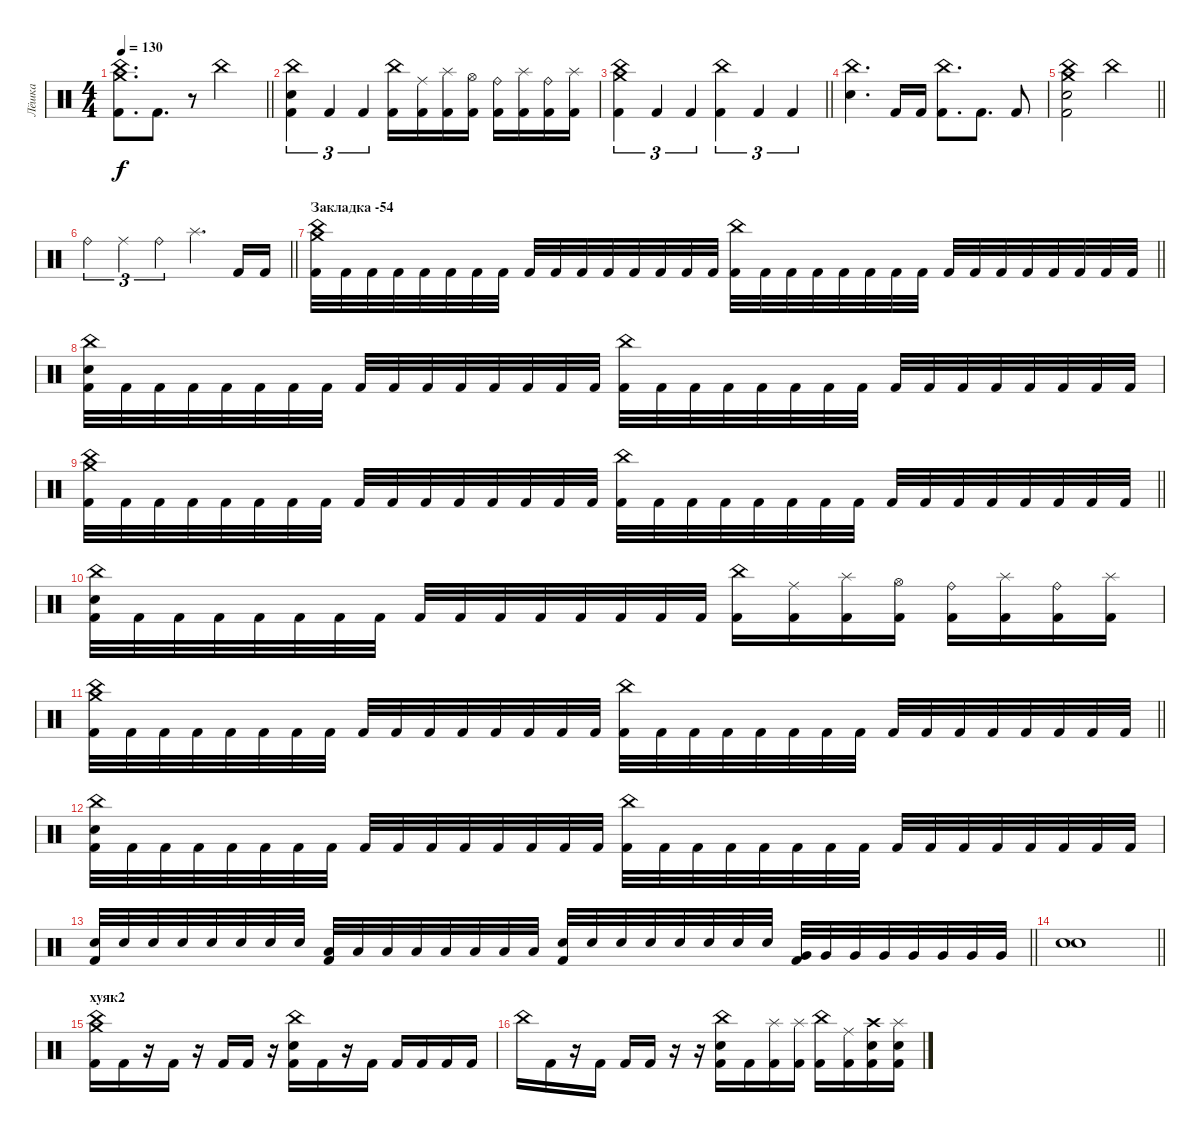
\track ("Лёшка" "Лёшка") {instrument percussion}
\staff {score}
\articulation defaults
\ts (4 4)
\tempo 130
\clef neutral
\barLineRight lightlight
\ks c
("China (hit)" "Crash medium (hit)" "Kick (hit) 2").8{d dy f} "Kick (hit) 2".8{d} r.8 "China (hit)".2 |
("China (hit)" "Electric Snare (hit)" "Kick (hit) 2").4{tu (3 2)} "Kick (hit) 2".4{tu (3 2)} "Kick (hit) 2".4{tu (3 2)} ("China (hit)" "Kick (hit) 2").16 ("Ride (middle)" "Kick (hit) 2").16 ("Splash (hit)" "Kick (hit) 2").16 ("Hi-Hat (open)" "Kick (hit) 2").16 ("Ride (bell)" "Kick (hit) 2").16 ("Splash (hit)" "Kick (hit) 2").16 ("Ride (bell)" "Kick (hit) 2").16 ("Splash (hit)" "Kick (hit) 2").16 |
\barLineRight lightlight
("China (hit)" "Crash medium (hit)" "Kick (hit) 2").4{tu (3 2)} "Kick (hit) 2".4{tu (3 2)} "Kick (hit) 2".4{tu (3 2)} ("China (hit)" "Kick (hit) 2").4{tu (3 2)} "Kick (hit) 2".4{tu (3 2)} "Kick (hit) 2".4{tu (3 2)} |
("China (hit)" "Electric Snare (hit)").4{d} "Kick (hit) 2".16 "Kick (hit) 2".16 ("China (hit)" "Kick (hit) 2").8{d} "Kick (hit) 2".8{d} "Kick (hit) 2".8 |
\barLineRight lightlight
("China (hit)" "Crash medium (hit)" "Electric Snare (hit)" "Kick (hit) 2").2 "China (hit)".2 |
\barLineRight lightlight "Ride (bell)".4{tu (3 2)} "Ride (middle)".4{tu (3 2)} "Ride (bell)".4{tu (3 2)} "Splash (hit)".4{d} "Kick (hit) 2".16 "Kick (hit) 2".16
|
\section ("" "Закладка -54")
\barLineRight lightlight
("China (hit)" "Crash medium (hit)" "Kick (hit) 2").32 "Kick (hit) 2".32 "Kick (hit) 2".32 "Kick (hit) 2".32 "Kick (hit) 2".32 "Kick (hit) 2".32 "Kick (hit) 2".32 "Kick (hit) 2".32 "Kick (hit) 2".32 "Kick (hit) 2".32 "Kick (hit) 2".32 "Kick (hit) 2".32 "Kick (hit) 2".32 "Kick (hit) 2".32 "Kick (hit) 2".32 "Kick (hit) 2".32 ("China (hit)" "Kick (hit) 2").32 "Kick (hit) 2".32 "Kick (hit) 2".32 "Kick (hit) 2".32 "Kick (hit) 2".32 "Kick (hit) 2".32 "Kick (hit) 2".32 "Kick (hit) 2".32 "Kick (hit) 2".32 "Kick (hit) 2".32 "Kick (hit) 2".32 "Kick (hit) 2".32 "Kick (hit) 2".32 "Kick (hit) 2".32 "Kick (hit) 2".32 "Kick (hit) 2".32 |
("China (hit)" "Electric Snare (hit)" "Kick (hit) 2").32 "Kick (hit) 2".32 "Kick (hit) 2".32 "Kick (hit) 2".32 "Kick (hit) 2".32 "Kick (hit) 2".32 "Kick (hit) 2".32 "Kick (hit) 2".32 "Kick (hit) 2".32 "Kick (hit) 2".32 "Kick (hit) 2".32 "Kick (hit) 2".32 "Kick (hit) 2".32 "Kick (hit) 2".32 "Kick (hit) 2".32 "Kick (hit) 2".32 ("China (hit)" "Kick (hit) 2").32 "Kick (hit) 2".32 "Kick (hit) 2".32 "Kick (hit) 2".32 "Kick (hit) 2".32 "Kick (hit) 2".32 "Kick (hit) 2".32 "Kick (hit) 2".32 "Kick (hit) 2".32 "Kick (hit) 2".32 "Kick (hit) 2".32 "Kick (hit) 2".32 "Kick (hit) 2".32 "Kick (hit) 2".32 "Kick (hit) 2".32 "Kick (hit) 2".32 |
\barLineRight lightlight
("China (hit)" "Crash medium (hit)" "Kick (hit) 2").32 "Kick (hit) 2".32 "Kick (hit) 2".32 "Kick (hit) 2".32 "Kick (hit) 2".32 "Kick (hit) 2".32 "Kick (hit) 2".32 "Kick (hit) 2".32 "Kick (hit) 2".32 "Kick (hit) 2".32 "Kick (hit) 2".32 "Kick (hit) 2".32 "Kick (hit) 2".32 "Kick (hit) 2".32 "Kick (hit) 2".32 "Kick (hit) 2".32 ("China (hit)" "Kick (hit) 2").32 "Kick (hit) 2".32 "Kick (hit) 2".32 "Kick (hit) 2".32 "Kick (hit) 2".32 "Kick (hit) 2".32 "Kick (hit) 2".32 "Kick (hit) 2".32 "Kick (hit) 2".32 "Kick (hit) 2".32 "Kick (hit) 2".32 "Kick (hit) 2".32 "Kick (hit) 2".32 "Kick (hit) 2".32 "Kick (hit) 2".32 "Kick (hit) 2".32 |
("China (hit)" "Electric Snare (hit)" "Kick (hit) 2").32 "Kick (hit) 2".32 "Kick (hit) 2".32 "Kick (hit) 2".32 "Kick (hit) 2".32 "Kick (hit) 2".32 "Kick (hit) 2".32 "Kick (hit) 2".32 "Kick (hit) 2".32 "Kick (hit) 2".32 "Kick (hit) 2".32 "Kick (hit) 2".32 "Kick (hit) 2".32 "Kick (hit) 2".32 "Kick (hit) 2".32 "Kick (hit) 2".32 ("China (hit)" "Kick (hit) 2").16 ("Ride (middle)" "Kick (hit) 2").16 ("Splash (hit)" "Kick (hit) 2").16 ("Hi-Hat (open)" "Kick (hit) 2").16 ("Ride (bell)" "Kick (hit) 2").16 ("Splash (hit)" "Kick (hit) 2").16 ("Ride (bell)" "Kick (hit) 2").16 ("Splash (hit)" "Kick (hit) 2").16 |
\barLineRight lightlight
("China (hit)" "Crash medium (hit)" "Kick (hit) 2").32 "Kick (hit) 2".32 "Kick (hit) 2".32 "Kick (hit) 2".32 "Kick (hit) 2".32 "Kick (hit) 2".32 "Kick (hit) 2".32 "Kick (hit) 2".32 "Kick (hit) 2".32 "Kick (hit) 2".32 "Kick (hit) 2".32 "Kick (hit) 2".32 "Kick (hit) 2".32 "Kick (hit) 2".32 "Kick (hit) 2".32 "Kick (hit) 2".32 ("China (hit)" "Kick (hit) 2").32 "Kick (hit) 2".32 "Kick (hit) 2".32 "Kick (hit) 2".32 "Kick (hit) 2".32 "Kick (hit) 2".32 "Kick (hit) 2".32 "Kick (hit) 2".32 "Kick (hit) 2".32 "Kick (hit) 2".32 "Kick (hit) 2".32 "Kick (hit) 2".32 "Kick (hit) 2".32 "Kick (hit) 2".32 "Kick (hit) 2".32 "Kick (hit) 2".32 |
("China (hit)" "Electric Snare (hit)" "Kick (hit) 2").32 "Kick (hit) 2".32 "Kick (hit) 2".32 "Kick (hit) 2".32 "Kick (hit) 2".32 "Kick (hit) 2".32 "Kick (hit) 2".32 "Kick (hit) 2".32 "Kick (hit) 2".32 "Kick (hit) 2".32 "Kick (hit) 2".32 "Kick (hit) 2".32 "Kick (hit) 2".32 "Kick (hit) 2".32 "Kick (hit) 2".32 "Kick (hit) 2".32 ("China (hit)" "Kick (hit) 2").32 "Kick (hit) 2".32 "Kick (hit) 2".32 "Kick (hit) 2".32 "Kick (hit) 2".32 "Kick (hit) 2".32 "Kick (hit) 2".32 "Kick (hit) 2".32 "Kick (hit) 2".32 "Kick (hit) 2".32 "Kick (hit) 2".32 "Kick (hit) 2".32 "Kick (hit) 2".32 "Kick (hit) 2".32 "Kick (hit) 2".32 "Kick (hit) 2".32 |
\barLineRight lightlight
("Electric Snare (hit)" "Kick (hit) 2").32 "Electric Snare (hit)".32 "Electric Snare (hit)".32 "Electric Snare (hit)".32 "Electric Snare (hit)".32 "Electric Snare (hit)".32 "Electric Snare (hit)".32 "Electric Snare (hit)".32 ("Low Tom (hit)" "Kick (hit) 2").32 "Low Tom (hit)".32 "Low Tom (hit)".32 "Low Tom (hit)".32 "Low Tom (hit)".32 "Low Tom (hit)".32 "Low Tom (hit)".32 "Low Tom (hit)".32 ("Electric Snare (hit)" "Kick (hit) 2").32 "Electric Snare (hit)".32 "Electric Snare (hit)".32 "Electric Snare (hit)".32 "Electric Snare (hit)".32 "Electric Snare (hit)".32 "Electric Snare (hit)".32 "Electric Snare (hit)".32 ("Very Low Tom (hit)" "Kick (hit) 2").32 "Very Low Tom (hit)".32 "Very Low Tom (hit)".32 "Very Low Tom (hit)".32 "Very Low Tom (hit)".32 "Very Low Tom (hit)".32 "Very Low Tom (hit)".32 "Very Low Tom (hit)".32 |
\barLineRight lightlight
("Electric Snare (hit)" "Electric Snare (hit)").1 |
\section ("" "хуяк2")
("China (hit)" "Crash medium (hit)" "Kick (hit) 2").16 "Kick (hit) 2".16 r.16 "Kick (hit) 2".16 r.16 "Kick (hit) 2".16 "Kick (hit) 2".16 r.16 ("China (hit)" "Electric Snare (hit)" "Kick (hit) 2").16 "Kick (hit) 2".16 r.16 "Kick (hit) 2".16 "Kick (hit) 2".16 "Kick (hit) 2".16 "Kick (hit) 2".16 "Kick (hit) 2".16 |
"China (hit)".16 "Kick (hit) 2".16 r.16 "Kick (hit) 2".16 "Kick (hit) 2".16 "Kick (hit) 2".16 r.16 r.16 ("China (hit)" "Electric Snare (hit)" "Kick (hit) 2").16 "Kick (hit) 2".16 ("Splash (hit)" "Kick (hit) 2").16 ("Splash (hit)" "Kick (hit) 2").16 ("China (hit)" "Kick (hit) 2").16 ("Ride (middle)" "Kick (hit) 2").16 ("Crash high (hit)" "Electric Snare (hit)" "Kick (hit) 2").16 ("Splash (hit)" "Electric Snare (hit)" "Kick (hit) 2").16
